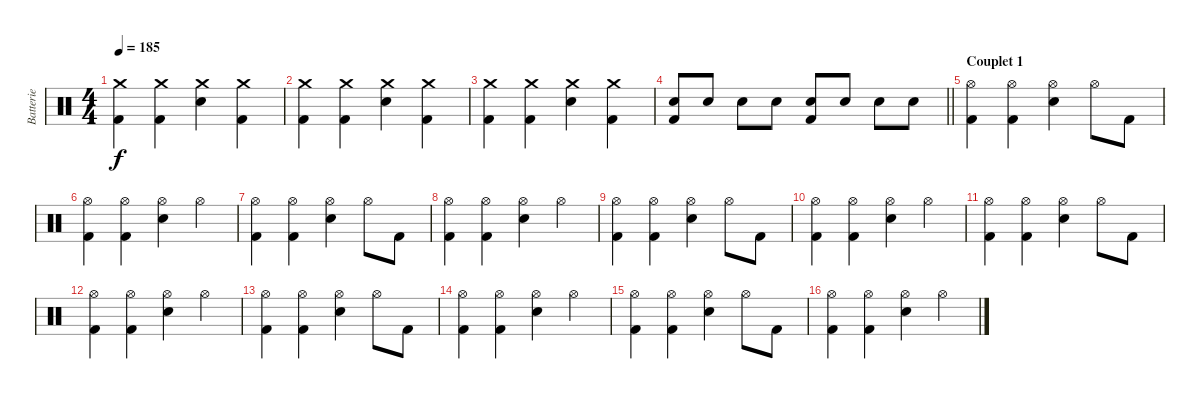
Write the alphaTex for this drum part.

\track ("Batterie" "Batterie") {instrument percussion}
\staff {score}
\articulation defaults
\ts (4 4)
\tempo 185
\clef neutral
\ks c
("Crash medium (hit)" "Kick (hit) 2").4{dy f} ("Crash medium (hit)" "Kick (hit) 2").4 ("Crash medium (hit)" "Electric Snare (hit)").4 ("Crash medium (hit)" "Kick (hit) 2").4 |
("Crash medium (hit)" "Kick (hit) 2").4 ("Crash medium (hit)" "Kick (hit) 2").4 ("Crash medium (hit)" "Electric Snare (hit)").4 ("Crash medium (hit)" "Kick (hit) 2").4 |
("Crash medium (hit)" "Kick (hit) 2").4 ("Crash medium (hit)" "Kick (hit) 2").4 ("Crash medium (hit)" "Electric Snare (hit)").4 ("Crash medium (hit)" "Kick (hit) 2").4 |
\barLineRight lightlight
("Electric Snare (hit)" "Kick (hit) 2").8 "Electric Snare (hit)".8 "Electric Snare (hit)".8 "Electric Snare (hit)".8 ("Electric Snare (hit)" "Kick (hit) 2").8 "Electric Snare (hit)".8 "Electric Snare (hit)".8 "Electric Snare (hit)".8 |
\section ("" "Couplet 1")
("Hi-Hat (open)" "Kick (hit) 2").4 ("Hi-Hat (open)" "Kick (hit) 2").4 ("Hi-Hat (open)" "Electric Snare (hit)").4 "Hi-Hat (open)".8 "Kick (hit) 2".8 |
("Hi-Hat (open)" "Kick (hit) 2").4 ("Hi-Hat (open)" "Kick (hit) 2").4 ("Hi-Hat (open)" "Electric Snare (hit)").4 "Hi-Hat (open)".4 |
("Hi-Hat (open)" "Kick (hit) 2").4 ("Hi-Hat (open)" "Kick (hit) 2").4 ("Hi-Hat (open)" "Electric Snare (hit)").4 "Hi-Hat (open)".8 "Kick (hit) 2".8 |
("Hi-Hat (open)" "Kick (hit) 2").4 ("Hi-Hat (open)" "Kick (hit) 2").4 ("Hi-Hat (open)" "Electric Snare (hit)").4 "Hi-Hat (open)".4 |
("Hi-Hat (open)" "Kick (hit) 2").4 ("Hi-Hat (open)" "Kick (hit) 2").4 ("Hi-Hat (open)" "Electric Snare (hit)").4 "Hi-Hat (open)".8 "Kick (hit) 2".8 |
("Hi-Hat (open)" "Kick (hit) 2").4 ("Hi-Hat (open)" "Kick (hit) 2").4 ("Hi-Hat (open)" "Electric Snare (hit)").4 "Hi-Hat (open)".4 |
("Hi-Hat (open)" "Kick (hit) 2").4 ("Hi-Hat (open)" "Kick (hit) 2").4 ("Hi-Hat (open)" "Electric Snare (hit)").4 "Hi-Hat (open)".8 "Kick (hit) 2".8 |
("Hi-Hat (open)" "Kick (hit) 2").4 ("Hi-Hat (open)" "Kick (hit) 2").4 ("Hi-Hat (open)" "Electric Snare (hit)").4 "Hi-Hat (open)".4 |
("Hi-Hat (open)" "Kick (hit) 2").4 ("Hi-Hat (open)" "Kick (hit) 2").4 ("Hi-Hat (open)" "Electric Snare (hit)").4 "Hi-Hat (open)".8 "Kick (hit) 2".8 |
("Hi-Hat (open)" "Kick (hit) 2").4 ("Hi-Hat (open)" "Kick (hit) 2").4 ("Hi-Hat (open)" "Electric Snare (hit)").4 "Hi-Hat (open)".4 |
("Hi-Hat (open)" "Kick (hit) 2").4 ("Hi-Hat (open)" "Kick (hit) 2").4 ("Hi-Hat (open)" "Electric Snare (hit)").4 "Hi-Hat (open)".8 "Kick (hit) 2".8 |
("Hi-Hat (open)" "Kick (hit) 2").4 ("Hi-Hat (open)" "Kick (hit) 2").4 ("Hi-Hat (open)" "Electric Snare (hit)").4 "Hi-Hat (open)".4
